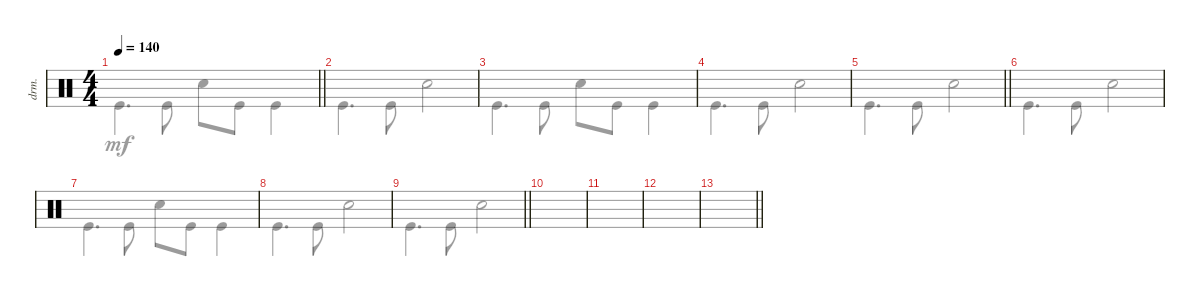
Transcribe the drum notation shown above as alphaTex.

\defaultSystemsLayout 4
\bracketExtendMode groupsimilarinstruments
\otherSystemsTrackNameOrientation horizontal
\chordDiagramsInScore
\track ("Drumkit" "drm.") {instrument percussion}
\staff {score}
\articulation defaults
\voice
\ts (4 4)
\tempo 140
\clef neutral
\barLineRight lightlight
\ks c
|
|
|
|
\barLineRight lightlight
|
|
|
|
\barLineRight lightlight
|
|
|
|
\barLineRight lightlight
|
|
|
\voice
\clef neutral
\barLineRight lightlight
\ks c "Kick (hit)".4{d dy mf} "Kick (hit)".8 "Snare (hit) 2".8 "Kick (hit)".8 "Kick (hit)".4
|
"Kick (hit)".4{d} "Kick (hit)".8 "Snare (hit) 2".2 |
"Kick (hit)".4{d} "Kick (hit)".8 "Snare (hit) 2".8 "Kick (hit)".8 "Kick (hit)".4 |
"Kick (hit)".4{d} "Kick (hit)".8 "Snare (hit) 2".2 |
\barLineRight lightlight "Kick (hit)".4{d} "Kick (hit)".8 "Snare (hit) 2".2
|
"Kick (hit)".4{d} "Kick (hit)".8 "Snare (hit) 2".2 |
"Kick (hit)".4{d} "Kick (hit)".8 "Snare (hit) 2".8 "Kick (hit)".8 "Kick (hit)".4 |
"Kick (hit)".4{d} "Kick (hit)".8 "Snare (hit) 2".2 |
\barLineRight lightlight "Kick (hit)".4{d} "Kick (hit)".8 "Snare (hit) 2".2
|
|
|
|
\barLineRight lightlight
|
|
|
